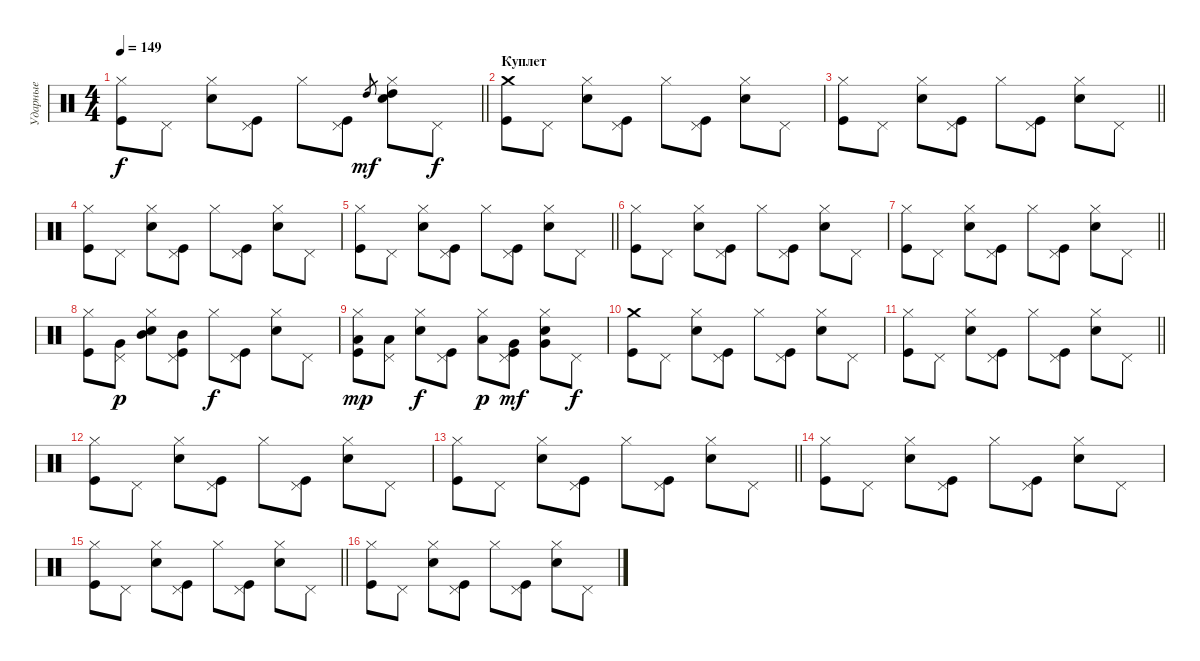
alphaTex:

\track ("Ударные" "Ударные") {instrument percussion}
\staff {score}
\articulation defaults
\ts (4 4)
\tempo 149
\clef neutral
\barLineRight lightlight
\ks c
("Hi-Hat (closed)" "Kick (hit)").8{dy f} "Pedal Hi-Hat (hit)".8 ("Hi-Hat (closed)" "Snare (hit) 2").8 ("Pedal Hi-Hat (hit)" "Kick (hit)").8 "Hi-Hat (closed)".8 ("Pedal Hi-Hat (hit)" "Kick (hit)").8 "High Tom (hit)".8{gr dy mf} ("Hi-Hat (closed)" "Snare (hit) 2" "High Tom (hit)").8 "Pedal Hi-Hat (hit)".8{dy f} |
\section ("" "Куплет")
("Crash medium (hit)" "Kick (hit)").8 "Pedal Hi-Hat (hit)".8 ("Hi-Hat (closed)" "Snare (hit) 2").8 ("Pedal Hi-Hat (hit)" "Kick (hit)").8 "Hi-Hat (closed)".8 ("Pedal Hi-Hat (hit)" "Kick (hit)").8 ("Hi-Hat (closed)" "Snare (hit) 2").8 "Pedal Hi-Hat (hit)".8 |
\barLineRight lightlight
("Hi-Hat (closed)" "Kick (hit)").8 "Pedal Hi-Hat (hit)".8 ("Hi-Hat (closed)" "Snare (hit) 2").8 ("Pedal Hi-Hat (hit)" "Kick (hit)").8 "Hi-Hat (closed)".8 ("Pedal Hi-Hat (hit)" "Kick (hit)").8 ("Hi-Hat (closed)" "Snare (hit) 2").8 "Pedal Hi-Hat (hit)".8 |
("Hi-Hat (closed)" "Kick (hit)").8 "Pedal Hi-Hat (hit)".8 ("Hi-Hat (closed)" "Snare (hit) 2").8 ("Pedal Hi-Hat (hit)" "Kick (hit)").8 "Hi-Hat (closed)".8 ("Pedal Hi-Hat (hit)" "Kick (hit)").8 ("Hi-Hat (closed)" "Snare (hit) 2").8 "Pedal Hi-Hat (hit)".8 |
\barLineRight lightlight
("Hi-Hat (closed)" "Kick (hit)").8 "Pedal Hi-Hat (hit)".8 ("Hi-Hat (closed)" "Snare (hit) 2").8 ("Pedal Hi-Hat (hit)" "Kick (hit)").8 "Hi-Hat (closed)".8 ("Pedal Hi-Hat (hit)" "Kick (hit)").8 ("Hi-Hat (closed)" "Snare (hit) 2").8 "Pedal Hi-Hat (hit)".8 |
("Hi-Hat (closed)" "Kick (hit)").8 "Pedal Hi-Hat (hit)".8 ("Hi-Hat (closed)" "Snare (hit) 2").8 ("Pedal Hi-Hat (hit)" "Kick (hit)").8 "Hi-Hat (closed)".8 ("Pedal Hi-Hat (hit)" "Kick (hit)").8 ("Hi-Hat (closed)" "Snare (hit) 2").8 "Pedal Hi-Hat (hit)".8 |
\barLineRight lightlight
("Hi-Hat (closed)" "Kick (hit)").8 "Pedal Hi-Hat (hit)".8 ("Hi-Hat (closed)" "Snare (hit) 2").8 ("Pedal Hi-Hat (hit)" "Kick (hit)").8 "Hi-Hat (closed)".8 ("Pedal Hi-Hat (hit)" "Kick (hit)").8 ("Hi-Hat (closed)" "Snare (hit) 2").8 "Pedal Hi-Hat (hit)".8 |
("Hi-Hat (closed)" "Kick (hit)").8 ("Pedal Hi-Hat (hit)" "Very Low Tom (hit)").8{dy p} ("Hi-Hat (closed)" "Snare (hit) 2" "Mid Tom (hit)").8 ("Pedal Hi-Hat (hit)" "Kick (hit)" "Mid Tom (hit)").8 "Hi-Hat (closed)".8{dy f} ("Pedal Hi-Hat (hit)" "Kick (hit)").8 ("Hi-Hat (closed)" "Snare (hit) 2").8 "Pedal Hi-Hat (hit)".8 |
("Hi-Hat (closed)" "Kick (hit)" "Low Floor Tom (hit)").8{dy mp} ("Pedal Hi-Hat (hit)" "Low Floor Tom (hit)").8 ("Hi-Hat (closed)" "Snare (hit) 2").8{dy f} ("Pedal Hi-Hat (hit)" "Kick (hit)").8 ("Hi-Hat (closed)" "Low Floor Tom (hit)").8{dy p} ("Pedal Hi-Hat (hit)" "Kick (hit)" "Very Low Tom (hit)").8{dy mf} ("Hi-Hat (closed)" "Snare (hit) 2" "Very Low Tom (hit)").8 "Pedal Hi-Hat (hit)".8{dy f} |
("Crash medium (hit)" "Kick (hit)").8 "Pedal Hi-Hat (hit)".8 ("Hi-Hat (closed)" "Snare (hit) 2").8 ("Pedal Hi-Hat (hit)" "Kick (hit)").8 "Hi-Hat (closed)".8 ("Pedal Hi-Hat (hit)" "Kick (hit)").8 ("Hi-Hat (closed)" "Snare (hit) 2").8 "Pedal Hi-Hat (hit)".8 |
\barLineRight lightlight
("Hi-Hat (closed)" "Kick (hit)").8 "Pedal Hi-Hat (hit)".8 ("Hi-Hat (closed)" "Snare (hit) 2").8 ("Pedal Hi-Hat (hit)" "Kick (hit)").8 "Hi-Hat (closed)".8 ("Pedal Hi-Hat (hit)" "Kick (hit)").8 ("Hi-Hat (closed)" "Snare (hit) 2").8 "Pedal Hi-Hat (hit)".8 |
("Hi-Hat (closed)" "Kick (hit)").8 "Pedal Hi-Hat (hit)".8 ("Hi-Hat (closed)" "Snare (hit) 2").8 ("Pedal Hi-Hat (hit)" "Kick (hit)").8 "Hi-Hat (closed)".8 ("Pedal Hi-Hat (hit)" "Kick (hit)").8 ("Hi-Hat (closed)" "Snare (hit) 2").8 "Pedal Hi-Hat (hit)".8 |
\barLineRight lightlight
("Hi-Hat (closed)" "Kick (hit)").8 "Pedal Hi-Hat (hit)".8 ("Hi-Hat (closed)" "Snare (hit) 2").8 ("Pedal Hi-Hat (hit)" "Kick (hit)").8 "Hi-Hat (closed)".8 ("Pedal Hi-Hat (hit)" "Kick (hit)").8 ("Hi-Hat (closed)" "Snare (hit) 2").8 "Pedal Hi-Hat (hit)".8 |
("Hi-Hat (closed)" "Kick (hit)").8 "Pedal Hi-Hat (hit)".8 ("Hi-Hat (closed)" "Snare (hit) 2").8 ("Pedal Hi-Hat (hit)" "Kick (hit)").8 "Hi-Hat (closed)".8 ("Pedal Hi-Hat (hit)" "Kick (hit)").8 ("Hi-Hat (closed)" "Snare (hit) 2").8 "Pedal Hi-Hat (hit)".8 |
\barLineRight lightlight
("Hi-Hat (closed)" "Kick (hit)").8 "Pedal Hi-Hat (hit)".8 ("Hi-Hat (closed)" "Snare (hit) 2").8 ("Pedal Hi-Hat (hit)" "Kick (hit)").8 "Hi-Hat (closed)".8 ("Pedal Hi-Hat (hit)" "Kick (hit)").8 ("Hi-Hat (closed)" "Snare (hit) 2").8 "Pedal Hi-Hat (hit)".8 |
("Hi-Hat (closed)" "Kick (hit)").8 "Pedal Hi-Hat (hit)".8 ("Hi-Hat (closed)" "Snare (hit) 2").8 ("Pedal Hi-Hat (hit)" "Kick (hit)").8 "Hi-Hat (closed)".8 ("Pedal Hi-Hat (hit)" "Kick (hit)").8 ("Hi-Hat (closed)" "Snare (hit) 2").8 "Pedal Hi-Hat (hit)".8
